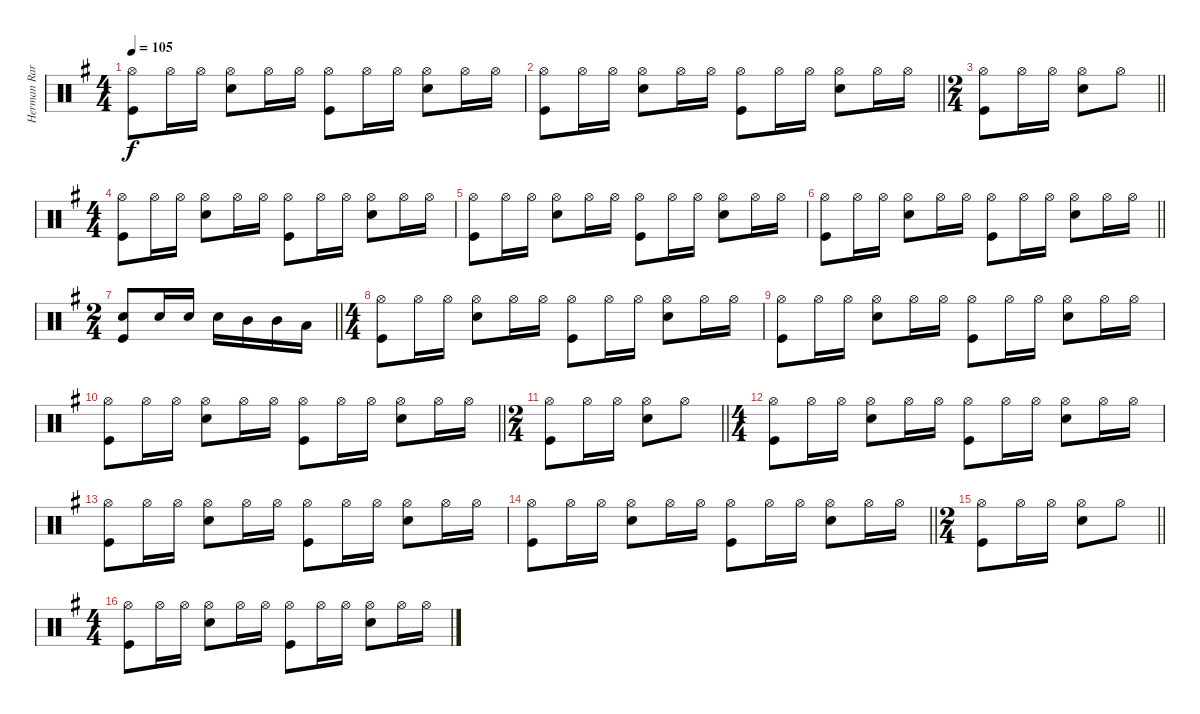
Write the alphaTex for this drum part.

\track ("Herman Rarebell" "Herman Rar") {instrument percussion}
\staff {score}
\articulation defaults
\ts (4 4)
\tempo 105
\clef neutral
\ks g
("Hi-Hat (open)" "Kick (hit)").8{dy f} "Hi-Hat (open)".16 "Hi-Hat (open)".16 ("Hi-Hat (open)" "Snare (hit) 2").8 "Hi-Hat (open)".16 "Hi-Hat (open)".16 ("Hi-Hat (open)" "Kick (hit)").8 "Hi-Hat (open)".16 "Hi-Hat (open)".16 ("Hi-Hat (open)" "Snare (hit) 2").8 "Hi-Hat (open)".16 "Hi-Hat (open)".16 |
\barLineRight lightlight
("Hi-Hat (open)" "Kick (hit)").8 "Hi-Hat (open)".16 "Hi-Hat (open)".16 ("Hi-Hat (open)" "Snare (hit) 2").8 "Hi-Hat (open)".16 "Hi-Hat (open)".16 ("Hi-Hat (open)" "Kick (hit)").8 "Hi-Hat (open)".16 "Hi-Hat (open)".16 ("Hi-Hat (open)" "Snare (hit) 2").8 "Hi-Hat (open)".16 "Hi-Hat (open)".16 |
\ts (2 4)
\barLineRight lightlight
("Hi-Hat (open)" "Kick (hit)").8 "Hi-Hat (open)".16 "Hi-Hat (open)".16 ("Hi-Hat (open)" "Snare (hit) 2").8 "Hi-Hat (open)".8 |
\ts (4 4)
("Hi-Hat (open)" "Kick (hit)").8 "Hi-Hat (open)".16 "Hi-Hat (open)".16 ("Hi-Hat (open)" "Snare (hit) 2").8 "Hi-Hat (open)".16 "Hi-Hat (open)".16 ("Hi-Hat (open)" "Kick (hit)").8 "Hi-Hat (open)".16 "Hi-Hat (open)".16 ("Hi-Hat (open)" "Snare (hit) 2").8 "Hi-Hat (open)".16 "Hi-Hat (open)".16 |
("Hi-Hat (open)" "Kick (hit)").8 "Hi-Hat (open)".16 "Hi-Hat (open)".16 ("Hi-Hat (open)" "Snare (hit) 2").8 "Hi-Hat (open)".16 "Hi-Hat (open)".16 ("Hi-Hat (open)" "Kick (hit)").8 "Hi-Hat (open)".16 "Hi-Hat (open)".16 ("Hi-Hat (open)" "Snare (hit) 2").8 "Hi-Hat (open)".16 "Hi-Hat (open)".16 |
\barLineRight lightlight
("Hi-Hat (open)" "Kick (hit)").8 "Hi-Hat (open)".16 "Hi-Hat (open)".16 ("Hi-Hat (open)" "Snare (hit) 2").8 "Hi-Hat (open)".16 "Hi-Hat (open)".16 ("Hi-Hat (open)" "Kick (hit)").8 "Hi-Hat (open)".16 "Hi-Hat (open)".16 ("Hi-Hat (open)" "Snare (hit) 2").8 "Hi-Hat (open)".16 "Hi-Hat (open)".16 |
\ts (2 4)
\barLineRight lightlight
("Snare (hit) 2" "Kick (hit)").8 "Snare (hit) 2".16 "Snare (hit) 2".16 "Snare (hit) 2".16 "Mid Tom (hit)".16 "Mid Tom (hit)".16 "Low Tom (hit)".16 |
\ts (4 4)
("Hi-Hat (open)" "Kick (hit)").8 "Hi-Hat (open)".16 "Hi-Hat (open)".16 ("Hi-Hat (open)" "Snare (hit) 2").8 "Hi-Hat (open)".16 "Hi-Hat (open)".16 ("Hi-Hat (open)" "Kick (hit)").8 "Hi-Hat (open)".16 "Hi-Hat (open)".16 ("Hi-Hat (open)" "Snare (hit) 2").8 "Hi-Hat (open)".16 "Hi-Hat (open)".16 |
("Hi-Hat (open)" "Kick (hit)").8 "Hi-Hat (open)".16 "Hi-Hat (open)".16 ("Hi-Hat (open)" "Snare (hit) 2").8 "Hi-Hat (open)".16 "Hi-Hat (open)".16 ("Hi-Hat (open)" "Kick (hit)").8 "Hi-Hat (open)".16 "Hi-Hat (open)".16 ("Hi-Hat (open)" "Snare (hit) 2").8 "Hi-Hat (open)".16 "Hi-Hat (open)".16 |
\barLineRight lightlight
("Hi-Hat (open)" "Kick (hit)").8 "Hi-Hat (open)".16 "Hi-Hat (open)".16 ("Hi-Hat (open)" "Snare (hit) 2").8 "Hi-Hat (open)".16 "Hi-Hat (open)".16 ("Hi-Hat (open)" "Kick (hit)").8 "Hi-Hat (open)".16 "Hi-Hat (open)".16 ("Hi-Hat (open)" "Snare (hit) 2").8 "Hi-Hat (open)".16 "Hi-Hat (open)".16 |
\ts (2 4)
\barLineRight lightlight
("Hi-Hat (open)" "Kick (hit)").8 "Hi-Hat (open)".16 "Hi-Hat (open)".16 ("Hi-Hat (open)" "Snare (hit) 2").8 "Hi-Hat (open)".8 |
\ts (4 4)
("Hi-Hat (open)" "Kick (hit)").8 "Hi-Hat (open)".16 "Hi-Hat (open)".16 ("Hi-Hat (open)" "Snare (hit) 2").8 "Hi-Hat (open)".16 "Hi-Hat (open)".16 ("Hi-Hat (open)" "Kick (hit)").8 "Hi-Hat (open)".16 "Hi-Hat (open)".16 ("Hi-Hat (open)" "Snare (hit) 2").8 "Hi-Hat (open)".16 "Hi-Hat (open)".16 |
("Hi-Hat (open)" "Kick (hit)").8 "Hi-Hat (open)".16 "Hi-Hat (open)".16 ("Hi-Hat (open)" "Snare (hit) 2").8 "Hi-Hat (open)".16 "Hi-Hat (open)".16 ("Hi-Hat (open)" "Kick (hit)").8 "Hi-Hat (open)".16 "Hi-Hat (open)".16 ("Hi-Hat (open)" "Snare (hit) 2").8 "Hi-Hat (open)".16 "Hi-Hat (open)".16 |
\barLineRight lightlight
("Hi-Hat (open)" "Kick (hit)").8 "Hi-Hat (open)".16 "Hi-Hat (open)".16 ("Hi-Hat (open)" "Snare (hit) 2").8 "Hi-Hat (open)".16 "Hi-Hat (open)".16 ("Hi-Hat (open)" "Kick (hit)").8 "Hi-Hat (open)".16 "Hi-Hat (open)".16 ("Hi-Hat (open)" "Snare (hit) 2").8 "Hi-Hat (open)".16 "Hi-Hat (open)".16 |
\ts (2 4)
\barLineRight lightlight
("Hi-Hat (open)" "Kick (hit)").8 "Hi-Hat (open)".16 "Hi-Hat (open)".16 ("Hi-Hat (open)" "Snare (hit) 2").8 "Hi-Hat (open)".8 |
\ts (4 4)
("Hi-Hat (open)" "Kick (hit)").8 "Hi-Hat (open)".16 "Hi-Hat (open)".16 ("Hi-Hat (open)" "Snare (hit) 2").8 "Hi-Hat (open)".16 "Hi-Hat (open)".16 ("Hi-Hat (open)" "Kick (hit)").8 "Hi-Hat (open)".16 "Hi-Hat (open)".16 ("Hi-Hat (open)" "Snare (hit) 2").8 "Hi-Hat (open)".16 "Hi-Hat (open)".16
